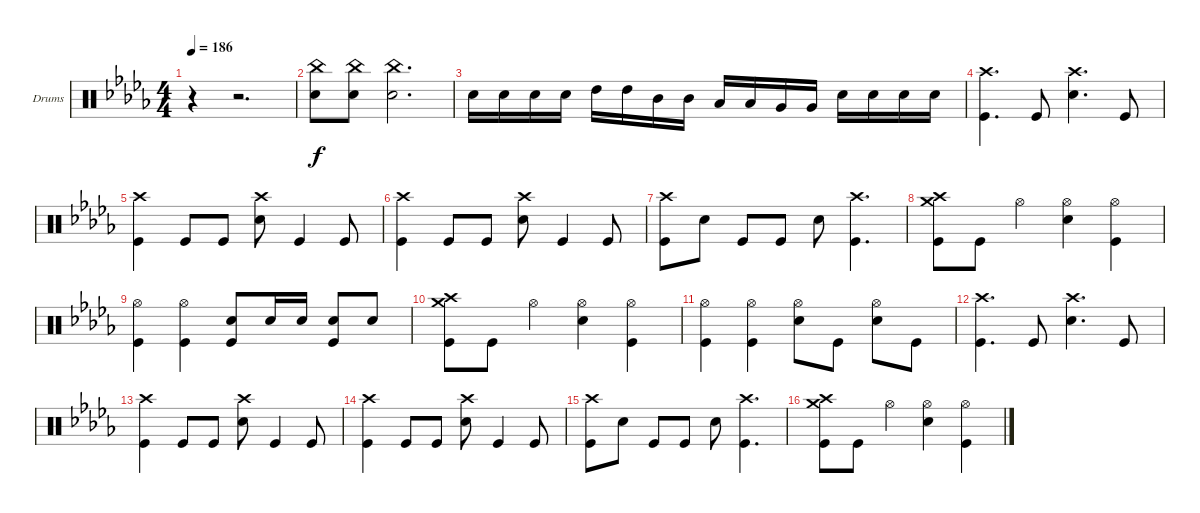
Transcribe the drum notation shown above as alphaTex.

\bracketExtendMode groupsimilarinstruments
\firstSystemTrackNameOrientation horizontal
\otherSystemsTrackNameOrientation horizontal
\track ("Drumkit" "Drums") {instrument percussion}
\staff {score}
\articulation defaults
\ts (4 4)
\tempo 186
\clef neutral
\ks db
r.4{dy f} r.2{d} |
("China (hit)" "Snare (hit) 2").8 ("China (hit)" "Snare (hit) 2").8 ("China (hit)" "Snare (hit) 2").2{d} |
"Snare (hit) 2".16 "Snare (hit) 2".16 "Snare (hit) 2".16 "Snare (hit) 2".16 "High Tom (hit)".16 "High Tom (hit)".16 "Mid Tom (hit)".16 "Mid Tom (hit)".16 "Low Tom (hit)".16 "Low Tom (hit)".16 "Very Low Tom (hit)".16 "Very Low Tom (hit)".16 "Snare (hit) 2".16 "Snare (hit) 2".16 "Snare (hit) 2".16 "Snare (hit) 2".16 |
("Crash high (hit)" "Kick (hit)").4{d} "Kick (hit)".8 ("Crash high (hit)" "Snare (hit) 2").4{d} "Kick (hit)".8 |
("Crash high (hit)" "Kick (hit)").4 "Kick (hit)".8 "Kick (hit)".8 ("Crash high (hit)" "Snare (hit) 2").8 "Kick (hit)".4 "Kick (hit)".8 |
("Crash high (hit)" "Kick (hit)").4 "Kick (hit)".8 "Kick (hit)".8 ("Crash high (hit)" "Snare (hit) 2").8 "Kick (hit)".4 "Kick (hit)".8 |
("Crash high (hit)" "Kick (hit)").8 "Snare (hit) 2".8 "Kick (hit)".8 "Kick (hit)".8 "Snare (hit) 2".8 ("Crash high (hit)" "Kick (hit)").4{d} |
("Crash medium (hit)" "Crash high (hit)" "Kick (hit)").8 "Kick (hit)".8 "Hi-Hat (open)".4 ("Hi-Hat (open)" "Snare (hit) 2").4 ("Hi-Hat (open)" "Kick (hit)").4 |
("Hi-Hat (open)" "Kick (hit)").4 ("Hi-Hat (open)" "Kick (hit)").4 ("Snare (hit) 2" "Kick (hit)").8 "Snare (hit) 2".16 "Snare (hit) 2".16 ("Snare (hit) 2" "Kick (hit)").8 "Snare (hit) 2".8 |
("Crash medium (hit)" "Crash high (hit)" "Kick (hit)").8 "Kick (hit)".8 "Hi-Hat (open)".4 ("Hi-Hat (open)" "Snare (hit) 2").4 ("Hi-Hat (open)" "Kick (hit)").4 |
("Hi-Hat (open)" "Kick (hit)").4 ("Hi-Hat (open)" "Kick (hit)").4 ("Hi-Hat (open)" "Snare (hit) 2").8 "Kick (hit)".8 ("Hi-Hat (open)" "Snare (hit) 2").8 "Kick (hit)".8 |
("Crash high (hit)" "Kick (hit)").4{d} "Kick (hit)".8 ("Crash high (hit)" "Snare (hit) 2").4{d} "Kick (hit)".8 |
("Crash high (hit)" "Kick (hit)").4 "Kick (hit)".8 "Kick (hit)".8 ("Crash high (hit)" "Snare (hit) 2").8 "Kick (hit)".4 "Kick (hit)".8 |
("Crash high (hit)" "Kick (hit)").4 "Kick (hit)".8 "Kick (hit)".8 ("Crash high (hit)" "Snare (hit) 2").8 "Kick (hit)".4 "Kick (hit)".8 |
("Crash high (hit)" "Kick (hit)").8 "Snare (hit) 2".8 "Kick (hit)".8 "Kick (hit)".8 "Snare (hit) 2".8 ("Crash high (hit)" "Kick (hit)").4{d} |
("Crash medium (hit)" "Crash high (hit)" "Kick (hit)").8 "Kick (hit)".8 "Hi-Hat (open)".4 ("Hi-Hat (open)" "Snare (hit) 2").4 ("Hi-Hat (open)" "Kick (hit)").4
